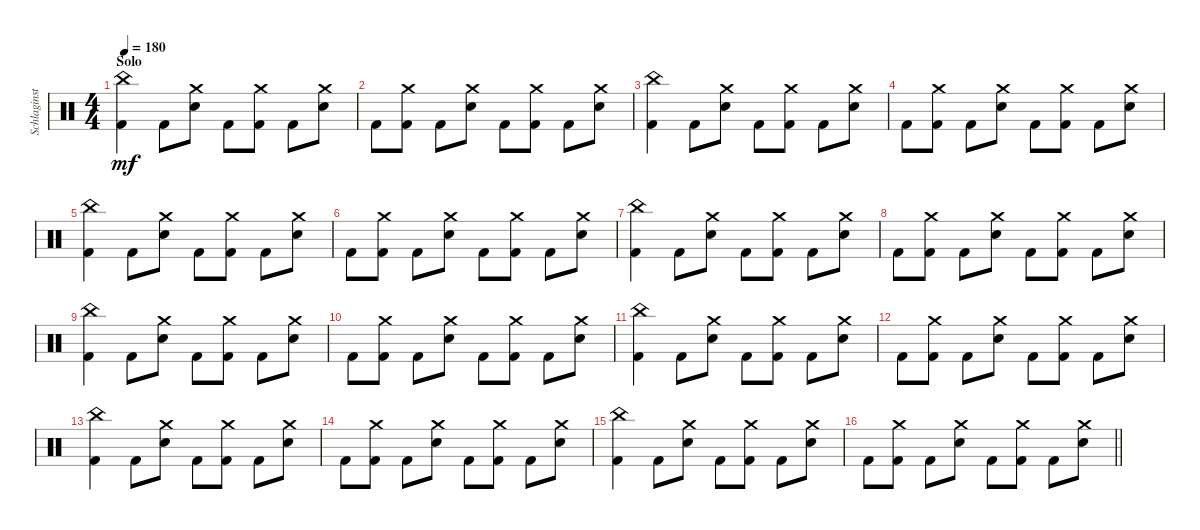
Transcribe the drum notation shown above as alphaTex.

\track ("Schlaginstrumente - Auswahl" "Schlaginst") {instrument percussion}
\staff {score}
\articulation defaults
\ts (4 4)
\section ("" "Solo")
\tempo 180
\clef neutral
\ks c
("Kick (hit) 2" "China (hit)").4{dy mf} "Kick (hit) 2".8 ("Electric Snare (hit)" "Crash medium (hit)").8 "Kick (hit) 2".8 ("Kick (hit) 2" "Crash medium (hit)").8 "Kick (hit) 2".8 ("Electric Snare (hit)" "Crash medium (hit)").8 |
"Kick (hit) 2".8 ("Kick (hit) 2" "Crash medium (hit)").8 "Kick (hit) 2".8 ("Electric Snare (hit)" "Crash medium (hit)").8 "Kick (hit) 2".8 ("Kick (hit) 2" "Crash medium (hit)").8 "Kick (hit) 2".8 ("Electric Snare (hit)" "Crash medium (hit)").8 |
("Kick (hit) 2" "China (hit)").4 "Kick (hit) 2".8 ("Electric Snare (hit)" "Crash medium (hit)").8 "Kick (hit) 2".8 ("Kick (hit) 2" "Crash medium (hit)").8 "Kick (hit) 2".8 ("Electric Snare (hit)" "Crash medium (hit)").8 |
"Kick (hit) 2".8 ("Kick (hit) 2" "Crash medium (hit)").8 "Kick (hit) 2".8 ("Electric Snare (hit)" "Crash medium (hit)").8 "Kick (hit) 2".8 ("Kick (hit) 2" "Crash medium (hit)").8 "Kick (hit) 2".8 ("Electric Snare (hit)" "Crash medium (hit)").8 |
("Kick (hit) 2" "China (hit)").4 "Kick (hit) 2".8 ("Electric Snare (hit)" "Crash medium (hit)").8 "Kick (hit) 2".8 ("Kick (hit) 2" "Crash medium (hit)").8 "Kick (hit) 2".8 ("Electric Snare (hit)" "Crash medium (hit)").8 |
"Kick (hit) 2".8 ("Kick (hit) 2" "Crash medium (hit)").8 "Kick (hit) 2".8 ("Electric Snare (hit)" "Crash medium (hit)").8 "Kick (hit) 2".8 ("Kick (hit) 2" "Crash medium (hit)").8 "Kick (hit) 2".8 ("Electric Snare (hit)" "Crash medium (hit)").8 |
("Kick (hit) 2" "China (hit)").4 "Kick (hit) 2".8 ("Electric Snare (hit)" "Crash medium (hit)").8 "Kick (hit) 2".8 ("Kick (hit) 2" "Crash medium (hit)").8 "Kick (hit) 2".8 ("Electric Snare (hit)" "Crash medium (hit)").8 |
"Kick (hit) 2".8 ("Kick (hit) 2" "Crash medium (hit)").8 "Kick (hit) 2".8 ("Electric Snare (hit)" "Crash medium (hit)").8 "Kick (hit) 2".8 ("Kick (hit) 2" "Crash medium (hit)").8 "Kick (hit) 2".8 ("Electric Snare (hit)" "Crash medium (hit)").8 |
("Kick (hit) 2" "China (hit)").4 "Kick (hit) 2".8 ("Electric Snare (hit)" "Crash medium (hit)").8 "Kick (hit) 2".8 ("Kick (hit) 2" "Crash medium (hit)").8 "Kick (hit) 2".8 ("Electric Snare (hit)" "Crash medium (hit)").8 |
"Kick (hit) 2".8 ("Kick (hit) 2" "Crash medium (hit)").8 "Kick (hit) 2".8 ("Electric Snare (hit)" "Crash medium (hit)").8 "Kick (hit) 2".8 ("Kick (hit) 2" "Crash medium (hit)").8 "Kick (hit) 2".8 ("Electric Snare (hit)" "Crash medium (hit)").8 |
("Kick (hit) 2" "China (hit)").4 "Kick (hit) 2".8 ("Electric Snare (hit)" "Crash medium (hit)").8 "Kick (hit) 2".8 ("Kick (hit) 2" "Crash medium (hit)").8 "Kick (hit) 2".8 ("Electric Snare (hit)" "Crash medium (hit)").8 |
"Kick (hit) 2".8 ("Kick (hit) 2" "Crash medium (hit)").8 "Kick (hit) 2".8 ("Electric Snare (hit)" "Crash medium (hit)").8 "Kick (hit) 2".8 ("Kick (hit) 2" "Crash medium (hit)").8 "Kick (hit) 2".8 ("Electric Snare (hit)" "Crash medium (hit)").8 |
("Kick (hit) 2" "China (hit)").4 "Kick (hit) 2".8 ("Electric Snare (hit)" "Crash medium (hit)").8 "Kick (hit) 2".8 ("Kick (hit) 2" "Crash medium (hit)").8 "Kick (hit) 2".8 ("Electric Snare (hit)" "Crash medium (hit)").8 |
"Kick (hit) 2".8 ("Kick (hit) 2" "Crash medium (hit)").8 "Kick (hit) 2".8 ("Electric Snare (hit)" "Crash medium (hit)").8 "Kick (hit) 2".8 ("Kick (hit) 2" "Crash medium (hit)").8 "Kick (hit) 2".8 ("Electric Snare (hit)" "Crash medium (hit)").8 |
("Kick (hit) 2" "China (hit)").4 "Kick (hit) 2".8 ("Electric Snare (hit)" "Crash medium (hit)").8 "Kick (hit) 2".8 ("Kick (hit) 2" "Crash medium (hit)").8 "Kick (hit) 2".8 ("Electric Snare (hit)" "Crash medium (hit)").8 |
\barLineRight lightlight "Kick (hit) 2".8
("Kick (hit) 2" "Crash medium (hit)").8 "Kick (hit) 2".8 ("Electric Snare (hit)" "Crash medium (hit)").8 "Kick (hit) 2".8 ("Kick (hit) 2" "Crash medium (hit)").8 "Kick (hit) 2".8 ("Electric Snare (hit)" "Crash medium (hit)").8
